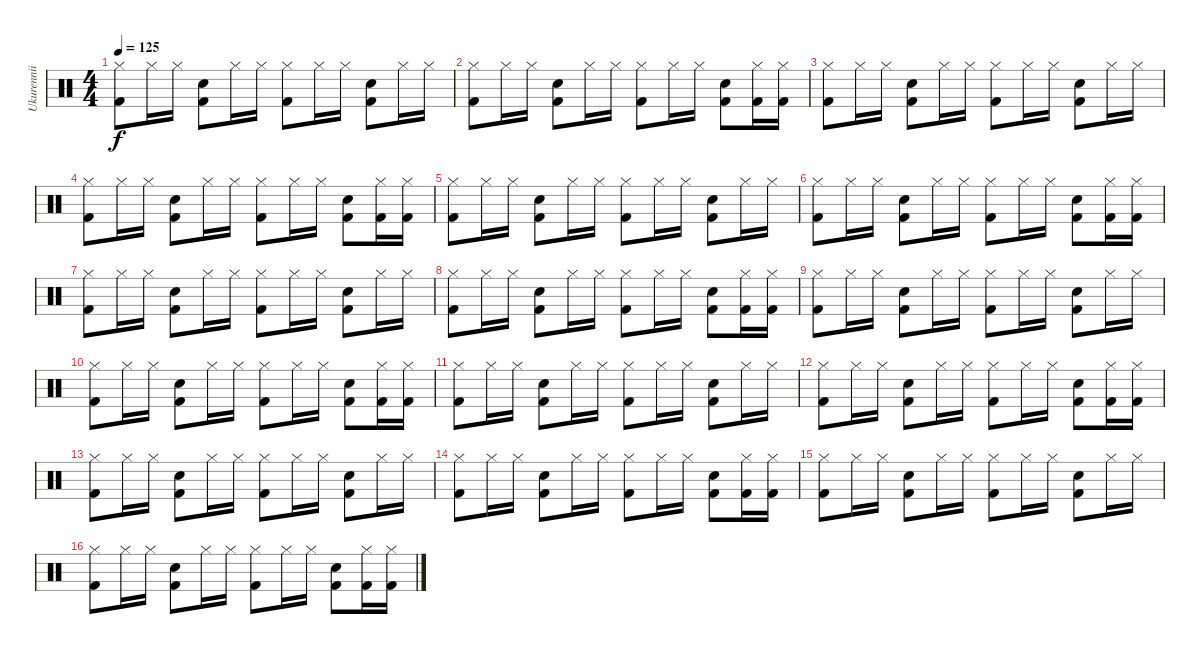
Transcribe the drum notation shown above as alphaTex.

\track ("Ukurennii Drums" "Ukurennii ") {instrument percussion}
\staff {score}
\articulation defaults
\ts (4 4)
\tempo 125
\clef neutral
\ks c
("Kick (hit) 2" "Hi-Hat (closed)").8{dy f} "Hi-Hat (closed)".16 "Hi-Hat (closed)".16 ("Kick (hit) 2" "Snare (hit) 2").8 "Hi-Hat (closed)".16 "Hi-Hat (closed)".16 ("Hi-Hat (closed)" "Kick (hit) 2").8 "Hi-Hat (closed)".16 "Hi-Hat (closed)".16 ("Snare (hit) 2" "Kick (hit) 2").8 "Hi-Hat (closed)".16 "Hi-Hat (closed)".16 |
("Hi-Hat (closed)" "Kick (hit) 2").8 "Hi-Hat (closed)".16 "Hi-Hat (closed)".16 ("Snare (hit) 2" "Kick (hit) 2").8 "Hi-Hat (closed)".16 "Hi-Hat (closed)".16 ("Kick (hit) 2" "Hi-Hat (closed)").8 "Hi-Hat (closed)".16 "Hi-Hat (closed)".16 ("Snare (hit) 2" "Kick (hit) 2").8 ("Kick (hit) 2" "Hi-Hat (closed)").16 ("Hi-Hat (closed)" "Kick (hit) 2").16 |
("Kick (hit) 2" "Hi-Hat (closed)").8 "Hi-Hat (closed)".16 "Hi-Hat (closed)".16 ("Snare (hit) 2" "Kick (hit) 2").8 "Hi-Hat (closed)".16 "Hi-Hat (closed)".16 ("Kick (hit) 2" "Hi-Hat (closed)").8 "Hi-Hat (closed)".16 "Hi-Hat (closed)".16 ("Kick (hit) 2" "Snare (hit) 2").8 "Hi-Hat (closed)".16 "Hi-Hat (closed)".16 |
("Hi-Hat (closed)" "Kick (hit) 2").8 "Hi-Hat (closed)".16 "Hi-Hat (closed)".16 ("Snare (hit) 2" "Kick (hit) 2").8 "Hi-Hat (closed)".16 "Hi-Hat (closed)".16 ("Kick (hit) 2" "Hi-Hat (closed)").8 "Hi-Hat (closed)".16 "Hi-Hat (closed)".16 ("Kick (hit) 2" "Snare (hit) 2").8 ("Kick (hit) 2" "Hi-Hat (closed)").16 ("Hi-Hat (closed)" "Kick (hit) 2").16 |
("Kick (hit) 2" "Hi-Hat (closed)").8 "Hi-Hat (closed)".16 "Hi-Hat (closed)".16 ("Kick (hit) 2" "Snare (hit) 2").8 "Hi-Hat (closed)".16 "Hi-Hat (closed)".16 ("Hi-Hat (closed)" "Kick (hit) 2").8 "Hi-Hat (closed)".16 "Hi-Hat (closed)".16 ("Snare (hit) 2" "Kick (hit) 2").8 "Hi-Hat (closed)".16 "Hi-Hat (closed)".16 |
("Hi-Hat (closed)" "Kick (hit) 2").8 "Hi-Hat (closed)".16 "Hi-Hat (closed)".16 ("Snare (hit) 2" "Kick (hit) 2").8 "Hi-Hat (closed)".16 "Hi-Hat (closed)".16 ("Kick (hit) 2" "Hi-Hat (closed)").8 "Hi-Hat (closed)".16 "Hi-Hat (closed)".16 ("Snare (hit) 2" "Kick (hit) 2").8 ("Kick (hit) 2" "Hi-Hat (closed)").16 ("Hi-Hat (closed)" "Kick (hit) 2").16 |
("Kick (hit) 2" "Hi-Hat (closed)").8 "Hi-Hat (closed)".16 "Hi-Hat (closed)".16 ("Snare (hit) 2" "Kick (hit) 2").8 "Hi-Hat (closed)".16 "Hi-Hat (closed)".16 ("Kick (hit) 2" "Hi-Hat (closed)").8 "Hi-Hat (closed)".16 "Hi-Hat (closed)".16 ("Kick (hit) 2" "Snare (hit) 2").8 "Hi-Hat (closed)".16 "Hi-Hat (closed)".16 |
("Hi-Hat (closed)" "Kick (hit) 2").8 "Hi-Hat (closed)".16 "Hi-Hat (closed)".16 ("Snare (hit) 2" "Kick (hit) 2").8 "Hi-Hat (closed)".16 "Hi-Hat (closed)".16 ("Kick (hit) 2" "Hi-Hat (closed)").8 "Hi-Hat (closed)".16 "Hi-Hat (closed)".16 ("Kick (hit) 2" "Snare (hit) 2").8 ("Kick (hit) 2" "Hi-Hat (closed)").16 ("Hi-Hat (closed)" "Kick (hit) 2").16 |
("Kick (hit) 2" "Hi-Hat (closed)").8 "Hi-Hat (closed)".16 "Hi-Hat (closed)".16 ("Kick (hit) 2" "Snare (hit) 2").8 "Hi-Hat (closed)".16 "Hi-Hat (closed)".16 ("Hi-Hat (closed)" "Kick (hit) 2").8 "Hi-Hat (closed)".16 "Hi-Hat (closed)".16 ("Kick (hit) 2" "Snare (hit) 2").8 "Hi-Hat (closed)".16 "Hi-Hat (closed)".16 |
("Hi-Hat (closed)" "Kick (hit) 2").8 "Hi-Hat (closed)".16 "Hi-Hat (closed)".16 ("Snare (hit) 2" "Kick (hit) 2").8 "Hi-Hat (closed)".16 "Hi-Hat (closed)".16 ("Kick (hit) 2" "Hi-Hat (closed)").8 "Hi-Hat (closed)".16 "Hi-Hat (closed)".16 ("Snare (hit) 2" "Kick (hit) 2").8 ("Hi-Hat (closed)" "Kick (hit) 2").16 ("Kick (hit) 2" "Hi-Hat (closed)").16 |
("Hi-Hat (closed)" "Kick (hit) 2").8 "Hi-Hat (closed)".16 "Hi-Hat (closed)".16 ("Kick (hit) 2" "Snare (hit) 2").8 "Hi-Hat (closed)".16 "Hi-Hat (closed)".16 ("Hi-Hat (closed)" "Kick (hit) 2").8 "Hi-Hat (closed)".16 "Hi-Hat (closed)".16 ("Kick (hit) 2" "Snare (hit) 2").8 "Hi-Hat (closed)".16 "Hi-Hat (closed)".16 |
("Kick (hit) 2" "Hi-Hat (closed)").8 "Hi-Hat (closed)".16 "Hi-Hat (closed)".16 ("Kick (hit) 2" "Snare (hit) 2").8 "Hi-Hat (closed)".16 "Hi-Hat (closed)".16 ("Kick (hit) 2" "Hi-Hat (closed)").8 "Hi-Hat (closed)".16 "Hi-Hat (closed)".16 ("Kick (hit) 2" "Snare (hit) 2").8 ("Hi-Hat (closed)" "Kick (hit) 2").16 ("Hi-Hat (closed)" "Kick (hit) 2").16 |
("Kick (hit) 2" "Hi-Hat (closed)").8 "Hi-Hat (closed)".16 "Hi-Hat (closed)".16 ("Kick (hit) 2" "Snare (hit) 2").8 "Hi-Hat (closed)".16 "Hi-Hat (closed)".16 ("Hi-Hat (closed)" "Kick (hit) 2").8 "Hi-Hat (closed)".16 "Hi-Hat (closed)".16 ("Kick (hit) 2" "Snare (hit) 2").8 "Hi-Hat (closed)".16 "Hi-Hat (closed)".16 |
("Hi-Hat (closed)" "Kick (hit) 2").8 "Hi-Hat (closed)".16 "Hi-Hat (closed)".16 ("Snare (hit) 2" "Kick (hit) 2").8 "Hi-Hat (closed)".16 "Hi-Hat (closed)".16 ("Kick (hit) 2" "Hi-Hat (closed)").8 "Hi-Hat (closed)".16 "Hi-Hat (closed)".16 ("Snare (hit) 2" "Kick (hit) 2").8 ("Hi-Hat (closed)" "Kick (hit) 2").16 ("Kick (hit) 2" "Hi-Hat (closed)").16 |
("Hi-Hat (closed)" "Kick (hit) 2").8 "Hi-Hat (closed)".16 "Hi-Hat (closed)".16 ("Kick (hit) 2" "Snare (hit) 2").8 "Hi-Hat (closed)".16 "Hi-Hat (closed)".16 ("Hi-Hat (closed)" "Kick (hit) 2").8 "Hi-Hat (closed)".16 "Hi-Hat (closed)".16 ("Kick (hit) 2" "Snare (hit) 2").8 "Hi-Hat (closed)".16 "Hi-Hat (closed)".16 |
("Kick (hit) 2" "Hi-Hat (closed)").8 "Hi-Hat (closed)".16 "Hi-Hat (closed)".16 ("Kick (hit) 2" "Snare (hit) 2").8 "Hi-Hat (closed)".16 "Hi-Hat (closed)".16 ("Kick (hit) 2" "Hi-Hat (closed)").8 "Hi-Hat (closed)".16 "Hi-Hat (closed)".16 ("Kick (hit) 2" "Snare (hit) 2").8 ("Hi-Hat (closed)" "Kick (hit) 2").16 ("Hi-Hat (closed)" "Kick (hit) 2").16
